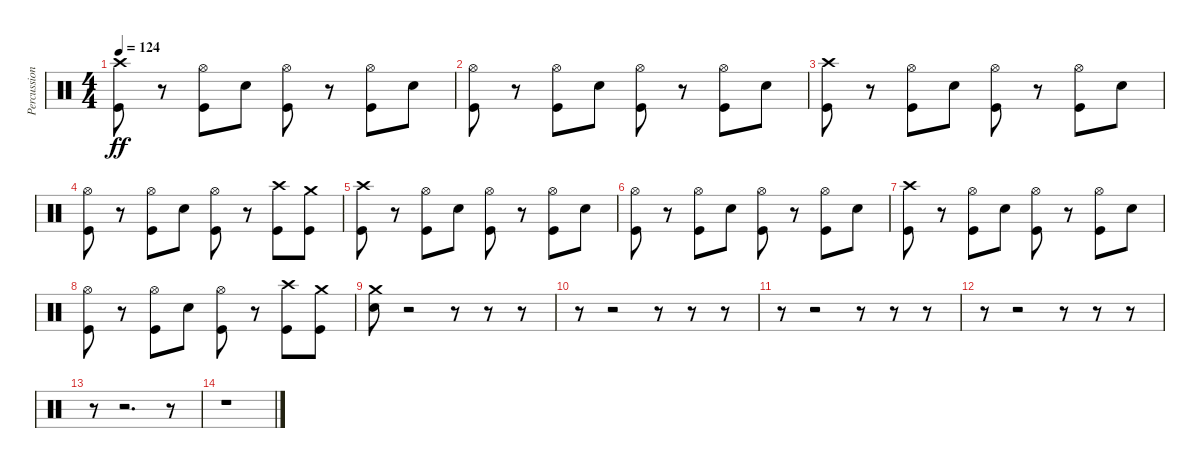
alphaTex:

\track ("Percussion" "Percussion") {instrument percussion}
\staff {score}
\articulation defaults
\ts (4 4)
\tempo 124
\clef neutral
\ks c
("Crash high (hit)" "Kick (hit)").8{dy ff} r.8 ("Hi-Hat (open)" "Kick (hit)").8 "Snare (hit) 2".8 ("Hi-Hat (open)" "Kick (hit)").8 r.8 ("Hi-Hat (open)" "Kick (hit)").8 "Snare (hit) 2".8 |
("Hi-Hat (open)" "Kick (hit)").8 r.8 ("Hi-Hat (open)" "Kick (hit)").8 "Snare (hit) 2".8 ("Hi-Hat (open)" "Kick (hit)").8 r.8 ("Hi-Hat (open)" "Kick (hit)").8 "Snare (hit) 2".8 |
("Crash high (hit)" "Kick (hit)").8 r.8 ("Hi-Hat (open)" "Kick (hit)").8 "Snare (hit) 2".8 ("Hi-Hat (open)" "Kick (hit)").8 r.8 ("Hi-Hat (open)" "Kick (hit)").8 "Snare (hit) 2".8 |
("Hi-Hat (open)" "Kick (hit)").8 r.8 ("Hi-Hat (open)" "Kick (hit)").8 "Snare (hit) 2".8 ("Hi-Hat (open)" "Kick (hit)").8 r.8 ("Crash high (hit)" "Kick (hit)").8 ("Crash medium (hit)" "Kick (hit)").8 |
("Crash high (hit)" "Kick (hit)").8 r.8 ("Hi-Hat (open)" "Kick (hit)").8 "Snare (hit) 2".8 ("Hi-Hat (open)" "Kick (hit)").8 r.8 ("Hi-Hat (open)" "Kick (hit)").8 "Snare (hit) 2".8 |
("Hi-Hat (open)" "Kick (hit)").8 r.8 ("Hi-Hat (open)" "Kick (hit)").8 "Snare (hit) 2".8 ("Hi-Hat (open)" "Kick (hit)").8 r.8 ("Hi-Hat (open)" "Kick (hit)").8 "Snare (hit) 2".8 |
("Crash high (hit)" "Kick (hit)").8 r.8 ("Hi-Hat (open)" "Kick (hit)").8 "Snare (hit) 2".8 ("Hi-Hat (open)" "Kick (hit)").8 r.8 ("Hi-Hat (open)" "Kick (hit)").8 "Snare (hit) 2".8 |
("Hi-Hat (open)" "Kick (hit)").8 r.8 ("Hi-Hat (open)" "Kick (hit)").8 "Snare (hit) 2".8 ("Hi-Hat (open)" "Kick (hit)").8 r.8 ("Crash high (hit)" "Kick (hit)").8 ("Crash medium (hit)" "Kick (hit)").8 |
("Crash medium (hit)" "Snare (hit) 2").8 r.2 r.8 r.8 r.8 |
r.8 r.2 r.8 r.8 r.8 |
r.8 r.2 r.8 r.8 r.8 |
r.8 r.2 r.8 r.8 r.8 |
r.8 r.2{d} r.8 |
r.1
